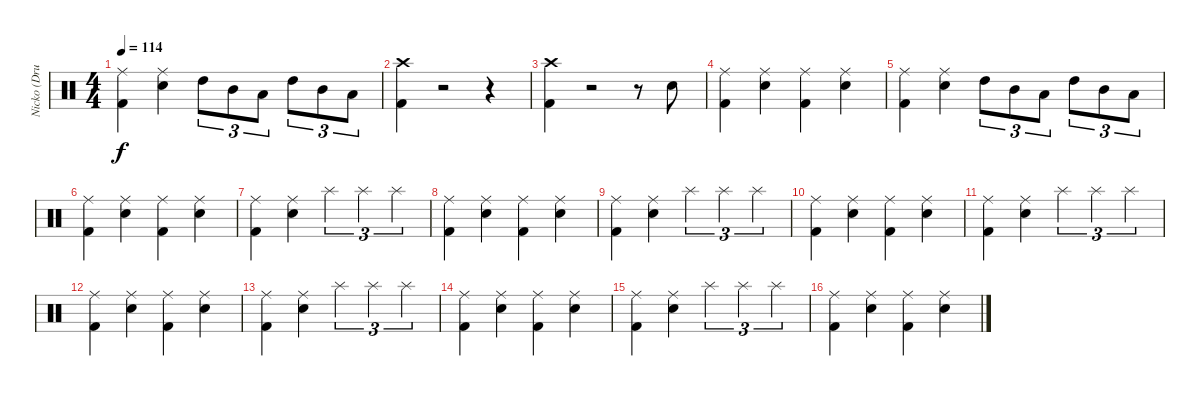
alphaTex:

\track ("Nicko (Drums)" "Nicko (Dru") {instrument percussion}
\staff {score}
\articulation defaults
\ts (4 4)
\tempo 114
\clef neutral
\ks c
("Ride (middle)" "Kick (hit) 2").4{dy f} ("Ride (middle)" "Snare (hit) 2").4 "High Tom (hit)".8{tu (3 2)} "Mid Tom (hit)".8{tu (3 2)} "Low Tom (hit)".8{tu (3 2)} "High Tom (hit)".8{tu (3 2)} "Mid Tom (hit)".8{tu (3 2)} "Low Tom (hit)".8{tu (3 2)} |
("Kick (hit) 2" "Crash high (hit)").4 r.2 r.4 |
("Kick (hit) 2" "Crash high (hit)").4 r.2 r.8 "Snare (hit) 2".8 |
("Ride (middle)" "Kick (hit) 2").4 ("Ride (middle)" "Snare (hit) 2").4 ("Ride (middle)" "Kick (hit) 2").4 ("Ride (middle)" "Snare (hit) 2").4 |
("Ride (middle)" "Kick (hit) 2").4 ("Ride (middle)" "Snare (hit) 2").4 "High Tom (hit)".8{tu (3 2)} "Mid Tom (hit)".8{tu (3 2)} "Low Tom (hit)".8{tu (3 2)} "High Tom (hit)".8{tu (3 2)} "Mid Tom (hit)".8{tu (3 2)} "Low Tom (hit)".8{tu (3 2)} |
("Ride (middle)" "Kick (hit) 2").4 ("Ride (middle)" "Snare (hit) 2").4 ("Ride (middle)" "Kick (hit) 2").4 ("Ride (middle)" "Snare (hit) 2").4 |
("Ride (middle)" "Kick (hit) 2").4 ("Ride (middle)" "Snare (hit) 2").4 "Splash (hit)".4{tu (3 2)} "Splash (hit)".4{tu (3 2)} "Splash (hit)".4{tu (3 2)} |
("Ride (middle)" "Kick (hit) 2").4 ("Ride (middle)" "Snare (hit) 2").4 ("Ride (middle)" "Kick (hit) 2").4 ("Ride (middle)" "Snare (hit) 2").4 |
("Ride (middle)" "Kick (hit) 2").4 ("Ride (middle)" "Snare (hit) 2").4 "Splash (hit)".4{tu (3 2)} "Splash (hit)".4{tu (3 2)} "Splash (hit)".4{tu (3 2)} |
("Ride (middle)" "Kick (hit) 2").4 ("Ride (middle)" "Snare (hit) 2").4 ("Ride (middle)" "Kick (hit) 2").4 ("Ride (middle)" "Snare (hit) 2").4 |
("Ride (middle)" "Kick (hit) 2").4 ("Ride (middle)" "Snare (hit) 2").4 "Splash (hit)".4{tu (3 2)} "Splash (hit)".4{tu (3 2)} "Splash (hit)".4{tu (3 2)} |
("Ride (middle)" "Kick (hit) 2").4 ("Ride (middle)" "Snare (hit) 2").4 ("Ride (middle)" "Kick (hit) 2").4 ("Ride (middle)" "Snare (hit) 2").4 |
("Ride (middle)" "Kick (hit) 2").4 ("Ride (middle)" "Snare (hit) 2").4 "Splash (hit)".4{tu (3 2)} "Splash (hit)".4{tu (3 2)} "Splash (hit)".4{tu (3 2)} |
("Ride (middle)" "Kick (hit) 2").4 ("Ride (middle)" "Snare (hit) 2").4 ("Ride (middle)" "Kick (hit) 2").4 ("Ride (middle)" "Snare (hit) 2").4 |
("Ride (middle)" "Kick (hit) 2").4 ("Ride (middle)" "Snare (hit) 2").4 "Splash (hit)".4{tu (3 2)} "Splash (hit)".4{tu (3 2)} "Splash (hit)".4{tu (3 2)} |
("Ride (middle)" "Kick (hit) 2").4 ("Ride (middle)" "Snare (hit) 2").4 ("Ride (middle)" "Kick (hit) 2").4 ("Ride (middle)" "Snare (hit) 2").4
